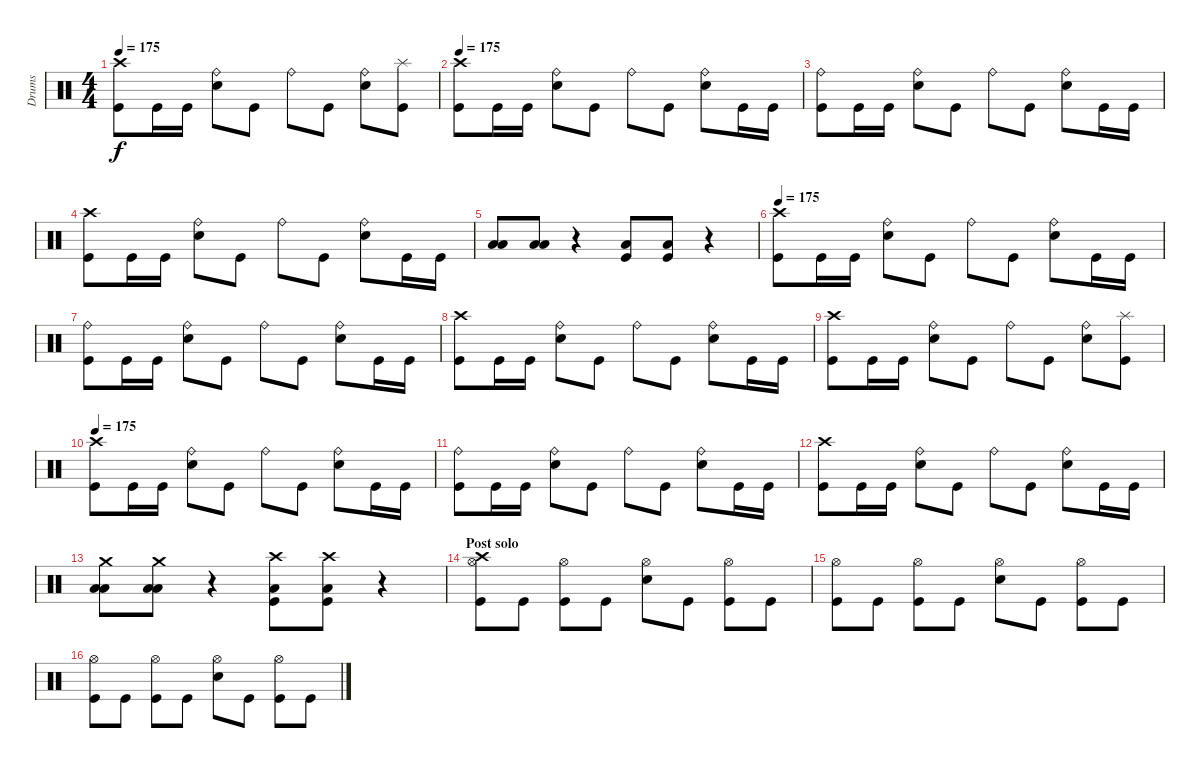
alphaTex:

\track ("Drums" "Drums") {instrument percussion}
\staff {score}
\articulation defaults
\ts (4 4)
\tempo 175
\clef neutral
\ks c
("Crash high (hit)" "Kick (hit)").8{dy f} "Kick (hit)".16 "Kick (hit)".16 ("Ride (bell)" "Electric Snare (hit)").8 "Kick (hit)".8 "Ride (bell)".8 "Kick (hit)".8 ("Ride (bell)" "Electric Snare (hit)").8 ("Splash (hit)" "Kick (hit)").8 |
\tempo 175
("Crash high (hit)" "Kick (hit)").8 "Kick (hit)".16 "Kick (hit)".16 ("Ride (bell)" "Electric Snare (hit)").8 "Kick (hit)".8 "Ride (bell)".8 "Kick (hit)".8 ("Ride (bell)" "Electric Snare (hit)").8 "Kick (hit)".16 "Kick (hit)".16 |
("Ride (bell)" "Kick (hit)").8 "Kick (hit)".16 "Kick (hit)".16 ("Ride (bell)" "Electric Snare (hit)").8 "Kick (hit)".8 "Ride (bell)".8 "Kick (hit)".8 ("Ride (bell)" "Electric Snare (hit)").8 "Kick (hit)".16 "Kick (hit)".16 |
("Crash high (hit)" "Kick (hit)").8 "Kick (hit)".16 "Kick (hit)".16 ("Ride (bell)" "Electric Snare (hit)").8 "Kick (hit)".8 "Ride (bell)".8 "Kick (hit)".8 ("Ride (bell)" "Electric Snare (hit)").8 "Kick (hit)".16 "Kick (hit)".16 |
("Low Floor Tom (hit)" "Low Tom (hit)").8 ("Low Floor Tom (hit)" "Low Tom (hit)").8 r.4 ("Kick (hit)" "Low Floor Tom (hit)").8 ("Kick (hit)" "Low Floor Tom (hit)").8 r.4 |
\tempo 175
("Crash high (hit)" "Kick (hit)").8 "Kick (hit)".16 "Kick (hit)".16 ("Ride (bell)" "Electric Snare (hit)").8 "Kick (hit)".8 "Ride (bell)".8 "Kick (hit)".8 ("Ride (bell)" "Electric Snare (hit)").8 "Kick (hit)".16 "Kick (hit)".16 |
("Ride (bell)" "Kick (hit)").8 "Kick (hit)".16 "Kick (hit)".16 ("Ride (bell)" "Electric Snare (hit)").8 "Kick (hit)".8 "Ride (bell)".8 "Kick (hit)".8 ("Ride (bell)" "Electric Snare (hit)").8 "Kick (hit)".16 "Kick (hit)".16 |
("Crash high (hit)" "Kick (hit)").8 "Kick (hit)".16 "Kick (hit)".16 ("Ride (bell)" "Electric Snare (hit)").8 "Kick (hit)".8 "Ride (bell)".8 "Kick (hit)".8 ("Ride (bell)" "Electric Snare (hit)").8 "Kick (hit)".16 "Kick (hit)".16 |
("Crash high (hit)" "Kick (hit)").8 "Kick (hit)".16 "Kick (hit)".16 ("Ride (bell)" "Electric Snare (hit)").8 "Kick (hit)".8 "Ride (bell)".8 "Kick (hit)".8 ("Ride (bell)" "Electric Snare (hit)").8 ("Splash (hit)" "Kick (hit)").8 |
\tempo 175
("Crash high (hit)" "Kick (hit)").8 "Kick (hit)".16 "Kick (hit)".16 ("Ride (bell)" "Electric Snare (hit)").8 "Kick (hit)".8 "Ride (bell)".8 "Kick (hit)".8 ("Ride (bell)" "Electric Snare (hit)").8 "Kick (hit)".16 "Kick (hit)".16 |
("Ride (bell)" "Kick (hit)").8 "Kick (hit)".16 "Kick (hit)".16 ("Ride (bell)" "Electric Snare (hit)").8 "Kick (hit)".8 "Ride (bell)".8 "Kick (hit)".8 ("Ride (bell)" "Electric Snare (hit)").8 "Kick (hit)".16 "Kick (hit)".16 |
("Crash high (hit)" "Kick (hit)").8 "Kick (hit)".16 "Kick (hit)".16 ("Ride (bell)" "Electric Snare (hit)").8 "Kick (hit)".8 "Ride (bell)".8 "Kick (hit)".8 ("Ride (bell)" "Electric Snare (hit)").8 "Kick (hit)".16 "Kick (hit)".16 |
("Crash medium (hit)" "Low Floor Tom (hit)" "Low Tom (hit)").8 ("Crash medium (hit)" "Low Floor Tom (hit)" "Low Tom (hit)").8 r.4 ("Crash high (hit)" "Kick (hit)" "Low Floor Tom (hit)").8 ("Crash high (hit)" "Kick (hit)" "Low Floor Tom (hit)").8 r.4 |
\section ("" "Post solo")
("Crash high (hit)" "Hi-Hat (open)" "Kick (hit)").8 "Kick (hit)".8 ("Hi-Hat (open)" "Kick (hit)").8 "Kick (hit)".8 ("Hi-Hat (open)" "Electric Snare (hit)").8 "Kick (hit)".8 ("Hi-Hat (open)" "Kick (hit)").8 "Kick (hit)".8 |
("Hi-Hat (open)" "Kick (hit)").8 "Kick (hit)".8 ("Hi-Hat (open)" "Kick (hit)").8 "Kick (hit)".8 ("Hi-Hat (open)" "Electric Snare (hit)").8 "Kick (hit)".8 ("Hi-Hat (open)" "Kick (hit)").8 "Kick (hit)".8 |
("Hi-Hat (open)" "Kick (hit)").8 "Kick (hit)".8 ("Hi-Hat (open)" "Kick (hit)").8 "Kick (hit)".8 ("Hi-Hat (open)" "Electric Snare (hit)").8 "Kick (hit)".8 ("Hi-Hat (open)" "Kick (hit)").8 "Kick (hit)".8
